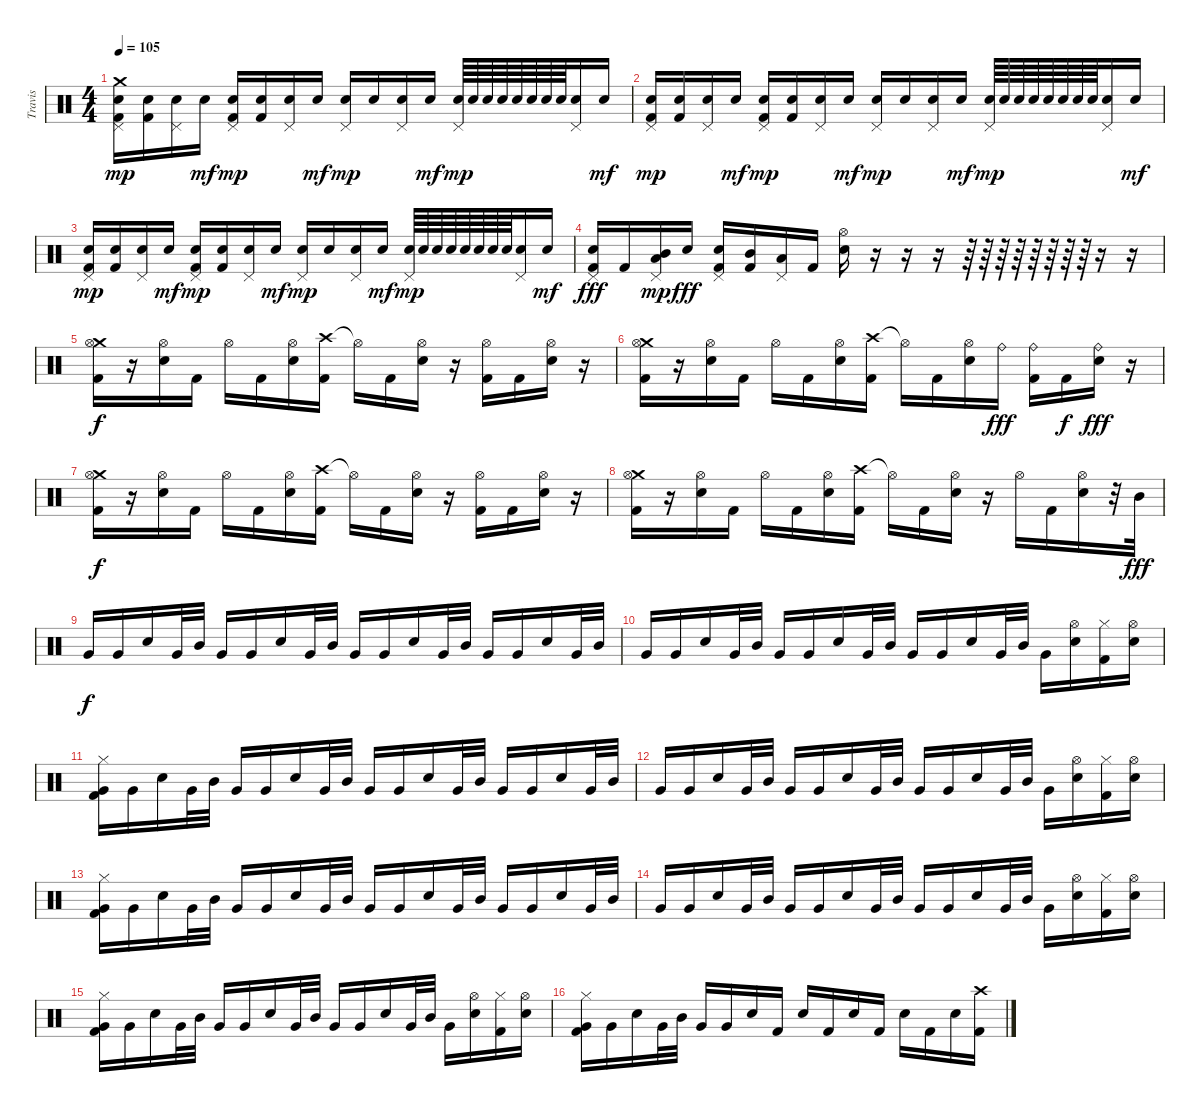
\track ("Travis" "Travis") {instrument percussion}
\staff {score}
\articulation defaults
\ts (4 4)
\tempo 105
\clef neutral
\ks c
("Crash medium (hit)" "Pedal Hi-Hat (hit)" "Electric Snare (hit)" "Kick (hit) 2").16{dy mp} ("Electric Snare (hit)" "Kick (hit) 2").16 ("Pedal Hi-Hat (hit)" "Electric Snare (hit)").16 "Electric Snare (hit)".16{dy mf} ("Pedal Hi-Hat (hit)" "Electric Snare (hit)" "Kick (hit) 2").16{dy mp} ("Electric Snare (hit)" "Kick (hit) 2").16 ("Pedal Hi-Hat (hit)" "Electric Snare (hit)").16 "Electric Snare (hit)".16{dy mf} ("Pedal Hi-Hat (hit)" "Electric Snare (hit)").16{dy mp} "Electric Snare (hit)".16 ("Pedal Hi-Hat (hit)" "Electric Snare (hit)").16 "Electric Snare (hit)".16{dy mf} ("Pedal Hi-Hat (hit)" "Electric Snare (hit)").64{dy mp} "Electric Snare (hit)".64 "Electric Snare (hit)".64 "Electric Snare (hit)".64 "Electric Snare (hit)".64 "Electric Snare (hit)".64 "Electric Snare (hit)".64 "Electric Snare (hit)".64 ("Pedal Hi-Hat (hit)" "Electric Snare (hit)").16 "Electric Snare (hit)".16{dy mf} |
("Pedal Hi-Hat (hit)" "Electric Snare (hit)" "Kick (hit) 2").16{dy mp} ("Electric Snare (hit)" "Kick (hit) 2").16 ("Pedal Hi-Hat (hit)" "Electric Snare (hit)").16 "Electric Snare (hit)".16{dy mf} ("Pedal Hi-Hat (hit)" "Electric Snare (hit)" "Kick (hit) 2").16{dy mp} ("Electric Snare (hit)" "Kick (hit) 2").16 ("Pedal Hi-Hat (hit)" "Electric Snare (hit)").16 "Electric Snare (hit)".16{dy mf} ("Pedal Hi-Hat (hit)" "Electric Snare (hit)").16{dy mp} "Electric Snare (hit)".16 ("Pedal Hi-Hat (hit)" "Electric Snare (hit)").16 "Electric Snare (hit)".16{dy mf} ("Pedal Hi-Hat (hit)" "Electric Snare (hit)").64{dy mp} "Electric Snare (hit)".64 "Electric Snare (hit)".64 "Electric Snare (hit)".64 "Electric Snare (hit)".64 "Electric Snare (hit)".64 "Electric Snare (hit)".64 "Electric Snare (hit)".64 ("Pedal Hi-Hat (hit)" "Electric Snare (hit)").16 "Electric Snare (hit)".16{dy mf} |
("Pedal Hi-Hat (hit)" "Electric Snare (hit)" "Kick (hit) 2").16{dy mp} ("Electric Snare (hit)" "Kick (hit) 2").16 ("Pedal Hi-Hat (hit)" "Electric Snare (hit)").16 "Electric Snare (hit)".16{dy mf} ("Pedal Hi-Hat (hit)" "Electric Snare (hit)" "Kick (hit) 2").16{dy mp} ("Electric Snare (hit)" "Kick (hit) 2").16 ("Pedal Hi-Hat (hit)" "Electric Snare (hit)").16 "Electric Snare (hit)".16{dy mf} ("Pedal Hi-Hat (hit)" "Electric Snare (hit)").16{dy mp} "Electric Snare (hit)".16 ("Pedal Hi-Hat (hit)" "Electric Snare (hit)").16 "Electric Snare (hit)".16{dy mf} ("Pedal Hi-Hat (hit)" "Electric Snare (hit)").64{dy mp} "Electric Snare (hit)".64 "Electric Snare (hit)".64 "Electric Snare (hit)".64 "Electric Snare (hit)".64 "Electric Snare (hit)".64 "Electric Snare (hit)".64 "Electric Snare (hit)".64 ("Pedal Hi-Hat (hit)" "Electric Snare (hit)").16 "Electric Snare (hit)".16{dy mf} |
("Pedal Hi-Hat (hit)" "Electric Snare (hit)" "Kick (hit) 2").16{dy fff} "Kick (hit) 2".16 ("Pedal Hi-Hat (hit)" "Mid Tom (hit)" "Low Tom (hit)").16{dy mp} "Electric Snare (hit)".16{dy fff} ("Pedal Hi-Hat (hit)" "Electric Snare (hit)" "Kick (hit) 2").16 ("Mid Tom (hit)" "Kick (hit) 2").16 ("Pedal Hi-Hat (hit)" "Low Tom (hit)").16 "Kick (hit) 2".16 ("Hi-Hat (open)" "Electric Snare (hit)").16 r.16 r.16 r.16 r.64 r.64 r.64 r.64 r.64 r.64 r.64 r.64 r.16 r.16 |
("Crash medium (hit)" "Hi-Hat (open)" "Kick (hit) 2").16{dy f} r.16 ("Hi-Hat (open)" "Electric Snare (hit)").16 "Kick (hit) 2".16 "Hi-Hat (open)".16 "Kick (hit) 2".16 ("Hi-Hat (open)" "Electric Snare (hit)").16 ("Crash high (hit)" "Kick (hit) 2").16 "Hi-Hat (open)"{t}.16 "Kick (hit) 2".16 ("Hi-Hat (open)" "Electric Snare (hit)").16 r.16 ("Hi-Hat (open)" "Kick (hit) 2").16 "Kick (hit) 2".16 ("Hi-Hat (open)" "Electric Snare (hit)").16 r.16 |
("Crash medium (hit)" "Hi-Hat (open)" "Kick (hit) 2").16 r.16 ("Hi-Hat (open)" "Electric Snare (hit)").16 "Kick (hit) 2".16 "Hi-Hat (open)".16 "Kick (hit) 2".16 ("Hi-Hat (open)" "Electric Snare (hit)").16 ("Crash high (hit)" "Kick (hit) 2").16 "Hi-Hat (open)"{t}.16 "Kick (hit) 2".16 ("Hi-Hat (open)" "Electric Snare (hit)").16 "Ride (bell)".16{dy fff} ("Ride (bell)" "Kick (hit) 2").16 "Kick (hit) 2".16{dy f} ("Ride (bell)" "Electric Snare (hit)").16{dy fff} r.16 |
("Crash medium (hit)" "Hi-Hat (open)" "Kick (hit) 2").16{dy f} r.16 ("Hi-Hat (open)" "Electric Snare (hit)").16 "Kick (hit) 2".16 "Hi-Hat (open)".16 "Kick (hit) 2".16 ("Hi-Hat (open)" "Electric Snare (hit)").16 ("Crash high (hit)" "Kick (hit) 2").16 "Hi-Hat (open)"{t}.16 "Kick (hit) 2".16 ("Hi-Hat (open)" "Electric Snare (hit)").16 r.16 ("Hi-Hat (open)" "Kick (hit) 2").16 "Kick (hit) 2".16 ("Hi-Hat (open)" "Electric Snare (hit)").16 r.16 |
("Crash medium (hit)" "Hi-Hat (open)" "Kick (hit) 2").16 r.16 ("Hi-Hat (open)" "Electric Snare (hit)").16 "Kick (hit) 2".16 "Hi-Hat (open)".16 "Kick (hit) 2".16 ("Hi-Hat (open)" "Electric Snare (hit)").16 ("Crash high (hit)" "Kick (hit) 2").16 "Hi-Hat (open)"{t}.16 "Kick (hit) 2".16 ("Hi-Hat (open)" "Electric Snare (hit)").16 r.16 "Hi-Hat (open)".16 "Kick (hit) 2".16 ("Hi-Hat (open)" "Electric Snare (hit)").16 r.32 "Mid Tom (hit)".32{dy fff} |
"Very Low Tom (hit)".16{dy f} "Very Low Tom (hit)".16 "Electric Snare (hit)".16 "Very Low Tom (hit)".32 "Mid Tom (hit)".32 "Very Low Tom (hit)".16 "Very Low Tom (hit)".16 "Electric Snare (hit)".16 "Very Low Tom (hit)".32 "Mid Tom (hit)".32 "Very Low Tom (hit)".16 "Very Low Tom (hit)".16 "Electric Snare (hit)".16 "Very Low Tom (hit)".32 "Mid Tom (hit)".32 "Very Low Tom (hit)".16 "Very Low Tom (hit)".16 "Electric Snare (hit)".16 "Very Low Tom (hit)".32 "Mid Tom (hit)".32 |
"Very Low Tom (hit)".16 "Very Low Tom (hit)".16 "Electric Snare (hit)".16 "Very Low Tom (hit)".32 "Mid Tom (hit)".32 "Very Low Tom (hit)".16 "Very Low Tom (hit)".16 "Electric Snare (hit)".16 "Very Low Tom (hit)".32 "Mid Tom (hit)".32 "Very Low Tom (hit)".16 "Very Low Tom (hit)".16 "Electric Snare (hit)".16 "Very Low Tom (hit)".32 "Mid Tom (hit)".32 "Very Low Tom (hit)".16 ("Hi-Hat (open)" "Electric Snare (hit)").16 ("Hi-Hat (closed)" "Kick (hit) 2").16 ("Hi-Hat (open)" "Electric Snare (hit)").16 |
("Hi-Hat (closed)" "Very Low Tom (hit)" "Kick (hit) 2").16 "Very Low Tom (hit)".16 "Electric Snare (hit)".16 "Very Low Tom (hit)".32 "Mid Tom (hit)".32 "Very Low Tom (hit)".16 "Very Low Tom (hit)".16 "Electric Snare (hit)".16 "Very Low Tom (hit)".32 "Mid Tom (hit)".32 "Very Low Tom (hit)".16 "Very Low Tom (hit)".16 "Electric Snare (hit)".16 "Very Low Tom (hit)".32 "Mid Tom (hit)".32 "Very Low Tom (hit)".16 "Very Low Tom (hit)".16 "Electric Snare (hit)".16 "Very Low Tom (hit)".32 "Mid Tom (hit)".32 |
"Very Low Tom (hit)".16 "Very Low Tom (hit)".16 "Electric Snare (hit)".16 "Very Low Tom (hit)".32 "Mid Tom (hit)".32 "Very Low Tom (hit)".16 "Very Low Tom (hit)".16 "Electric Snare (hit)".16 "Very Low Tom (hit)".32 "Mid Tom (hit)".32 "Very Low Tom (hit)".16 "Very Low Tom (hit)".16 "Electric Snare (hit)".16 "Very Low Tom (hit)".32 "Mid Tom (hit)".32 "Very Low Tom (hit)".16 ("Hi-Hat (open)" "Electric Snare (hit)").16 ("Hi-Hat (closed)" "Kick (hit) 2").16 ("Hi-Hat (open)" "Electric Snare (hit)").16 |
("Hi-Hat (closed)" "Very Low Tom (hit)" "Kick (hit) 2").16 "Very Low Tom (hit)".16 "Electric Snare (hit)".16 "Very Low Tom (hit)".32 "Mid Tom (hit)".32 "Very Low Tom (hit)".16 "Very Low Tom (hit)".16 "Electric Snare (hit)".16 "Very Low Tom (hit)".32 "Mid Tom (hit)".32 "Very Low Tom (hit)".16 "Very Low Tom (hit)".16 "Electric Snare (hit)".16 "Very Low Tom (hit)".32 "Mid Tom (hit)".32 "Very Low Tom (hit)".16 "Very Low Tom (hit)".16 "Electric Snare (hit)".16 "Very Low Tom (hit)".32 "Mid Tom (hit)".32 |
"Very Low Tom (hit)".16 "Very Low Tom (hit)".16 "Electric Snare (hit)".16 "Very Low Tom (hit)".32 "Mid Tom (hit)".32 "Very Low Tom (hit)".16 "Very Low Tom (hit)".16 "Electric Snare (hit)".16 "Very Low Tom (hit)".32 "Mid Tom (hit)".32 "Very Low Tom (hit)".16 "Very Low Tom (hit)".16 "Electric Snare (hit)".16 "Very Low Tom (hit)".32 "Mid Tom (hit)".32 "Very Low Tom (hit)".16 ("Hi-Hat (open)" "Electric Snare (hit)").16 ("Hi-Hat (closed)" "Kick (hit) 2").16 ("Hi-Hat (open)" "Electric Snare (hit)").16 |
("Hi-Hat (closed)" "Very Low Tom (hit)" "Kick (hit) 2").16 "Very Low Tom (hit)".16 "Electric Snare (hit)".16 "Very Low Tom (hit)".32 "Mid Tom (hit)".32 "Very Low Tom (hit)".16 "Very Low Tom (hit)".16 "Electric Snare (hit)".16 "Very Low Tom (hit)".32 "Mid Tom (hit)".32 "Very Low Tom (hit)".16 "Very Low Tom (hit)".16 "Electric Snare (hit)".16 "Very Low Tom (hit)".32 "Mid Tom (hit)".32 "Very Low Tom (hit)".16 ("Hi-Hat (open)" "Electric Snare (hit)").16 ("Hi-Hat (closed)" "Kick (hit) 2").16 ("Hi-Hat (open)" "Electric Snare (hit)").16 |
("Hi-Hat (closed)" "Very Low Tom (hit)" "Kick (hit) 2").16 "Very Low Tom (hit)".16 "Electric Snare (hit)".16 "Very Low Tom (hit)".32 "Mid Tom (hit)".32 "Very Low Tom (hit)".16 "Very Low Tom (hit)".16 "Electric Snare (hit)".16 "Kick (hit) 2".16 "Electric Snare (hit)".16 "Kick (hit) 2".16 "Electric Snare (hit)".16 "Kick (hit) 2".16 "Electric Snare (hit)".16 "Kick (hit) 2".16 "Electric Snare (hit)".16 ("Crash high (hit)" "Kick (hit) 2").16
